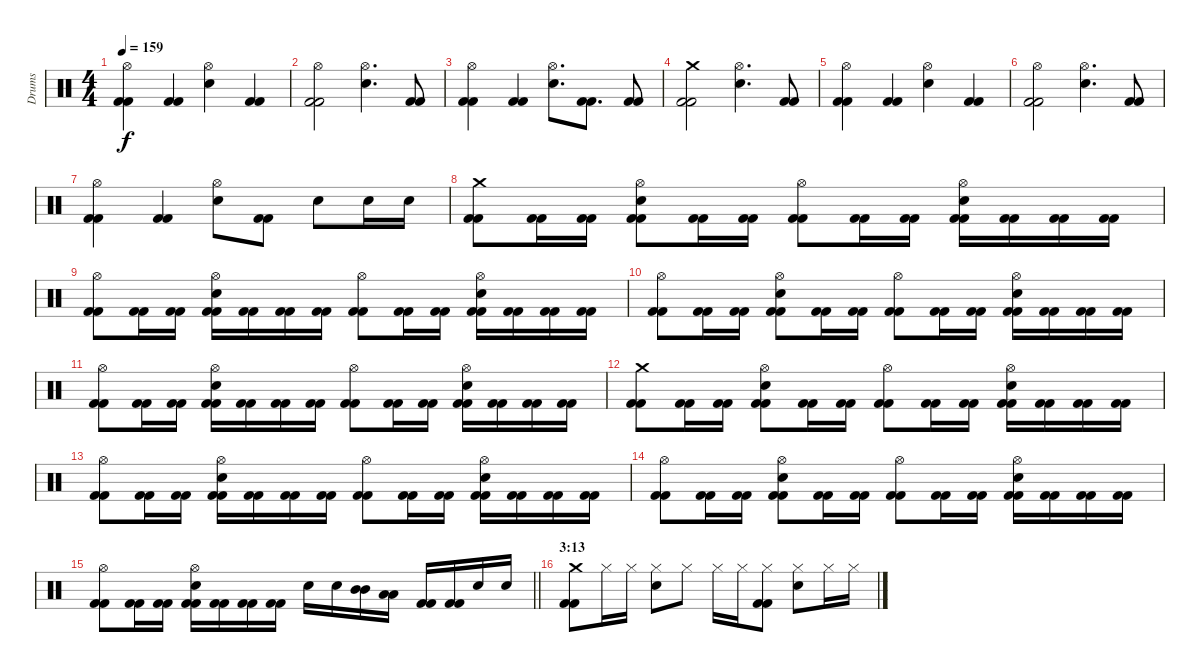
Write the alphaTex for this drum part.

\track ("Drums" "Drums") {instrument percussion}
\staff {score}
\articulation defaults
\ts (4 4)
\tempo 159
\clef neutral
\ks c
("Hi-Hat (open)" "Kick (hit) 2" "Kick (hit) 2").4{dy f} ("Kick (hit) 2" "Kick (hit) 2").4 ("Hi-Hat (open)" "Electric Snare (hit)").4 ("Kick (hit) 2" "Kick (hit) 2").4 |
("Hi-Hat (open)" "Kick (hit) 2" "Kick (hit) 2").2 ("Hi-Hat (open)" "Electric Snare (hit)").4{d} ("Kick (hit) 2" "Kick (hit) 2").8 |
("Hi-Hat (open)" "Kick (hit) 2" "Kick (hit) 2").4 ("Kick (hit) 2" "Kick (hit) 2").4 ("Hi-Hat (open)" "Electric Snare (hit)").8{d} ("Kick (hit) 2" "Kick (hit) 2").8{d} ("Kick (hit) 2" "Kick (hit) 2").8 |
("Crash medium (hit)" "Kick (hit) 2" "Kick (hit) 2").2 ("Hi-Hat (open)" "Electric Snare (hit)").4{d} ("Kick (hit) 2" "Kick (hit) 2").8 |
("Hi-Hat (open)" "Kick (hit) 2" "Kick (hit) 2").4 ("Kick (hit) 2" "Kick (hit) 2").4 ("Hi-Hat (open)" "Electric Snare (hit)").4 ("Kick (hit) 2" "Kick (hit) 2").4 |
("Hi-Hat (open)" "Kick (hit) 2" "Kick (hit) 2").2 ("Hi-Hat (open)" "Electric Snare (hit)").4{d} ("Kick (hit) 2" "Kick (hit) 2").8 |
("Hi-Hat (open)" "Kick (hit) 2" "Kick (hit) 2").4 ("Kick (hit) 2" "Kick (hit) 2").4 ("Hi-Hat (open)" "Electric Snare (hit)").8 ("Kick (hit) 2" "Kick (hit) 2").8 "Electric Snare (hit)".8 "Electric Snare (hit)".16 "Electric Snare (hit)".16 |
("Crash medium (hit)" "Kick (hit) 2" "Kick (hit) 2").8 ("Kick (hit) 2" "Kick (hit) 2").16 ("Kick (hit) 2" "Kick (hit) 2").16 ("Hi-Hat (open)" "Electric Snare (hit)" "Kick (hit) 2" "Kick (hit) 2").8 ("Kick (hit) 2" "Kick (hit) 2").16 ("Kick (hit) 2" "Kick (hit) 2").16 ("Hi-Hat (open)" "Kick (hit) 2" "Kick (hit) 2").8 ("Kick (hit) 2" "Kick (hit) 2").16 ("Kick (hit) 2" "Kick (hit) 2").16 ("Hi-Hat (open)" "Electric Snare (hit)" "Kick (hit) 2" "Kick (hit) 2").16 ("Kick (hit) 2" "Kick (hit) 2").16 ("Kick (hit) 2" "Kick (hit) 2").16 ("Kick (hit) 2" "Kick (hit) 2").16 |
("Hi-Hat (open)" "Kick (hit) 2" "Kick (hit) 2").8 ("Kick (hit) 2" "Kick (hit) 2").16 ("Kick (hit) 2" "Kick (hit) 2").16 ("Hi-Hat (open)" "Electric Snare (hit)" "Kick (hit) 2" "Kick (hit) 2").16 ("Kick (hit) 2" "Kick (hit) 2").16 ("Kick (hit) 2" "Kick (hit) 2").16 ("Kick (hit) 2" "Kick (hit) 2").16 ("Hi-Hat (open)" "Kick (hit) 2" "Kick (hit) 2").8 ("Kick (hit) 2" "Kick (hit) 2").16 ("Kick (hit) 2" "Kick (hit) 2").16 ("Hi-Hat (open)" "Electric Snare (hit)" "Kick (hit) 2" "Kick (hit) 2").16 ("Kick (hit) 2" "Kick (hit) 2").16 ("Kick (hit) 2" "Kick (hit) 2").16 ("Kick (hit) 2" "Kick (hit) 2").16 |
("Hi-Hat (open)" "Kick (hit) 2" "Kick (hit) 2").8 ("Kick (hit) 2" "Kick (hit) 2").16 ("Kick (hit) 2" "Kick (hit) 2").16 ("Hi-Hat (open)" "Electric Snare (hit)" "Kick (hit) 2" "Kick (hit) 2").8 ("Kick (hit) 2" "Kick (hit) 2").16 ("Kick (hit) 2" "Kick (hit) 2").16 ("Hi-Hat (open)" "Kick (hit) 2" "Kick (hit) 2").8 ("Kick (hit) 2" "Kick (hit) 2").16 ("Kick (hit) 2" "Kick (hit) 2").16 ("Hi-Hat (open)" "Electric Snare (hit)" "Kick (hit) 2" "Kick (hit) 2").16 ("Kick (hit) 2" "Kick (hit) 2").16 ("Kick (hit) 2" "Kick (hit) 2").16 ("Kick (hit) 2" "Kick (hit) 2").16 |
("Hi-Hat (open)" "Kick (hit) 2" "Kick (hit) 2").8 ("Kick (hit) 2" "Kick (hit) 2").16 ("Kick (hit) 2" "Kick (hit) 2").16 ("Hi-Hat (open)" "Electric Snare (hit)" "Kick (hit) 2" "Kick (hit) 2").16 ("Kick (hit) 2" "Kick (hit) 2").16 ("Kick (hit) 2" "Kick (hit) 2").16 ("Kick (hit) 2" "Kick (hit) 2").16 ("Hi-Hat (open)" "Kick (hit) 2" "Kick (hit) 2").8 ("Kick (hit) 2" "Kick (hit) 2").16 ("Kick (hit) 2" "Kick (hit) 2").16 ("Hi-Hat (open)" "Electric Snare (hit)" "Kick (hit) 2" "Kick (hit) 2").16 ("Kick (hit) 2" "Kick (hit) 2").16 ("Kick (hit) 2" "Kick (hit) 2").16 ("Kick (hit) 2" "Kick (hit) 2").16 |
("Crash medium (hit)" "Kick (hit) 2" "Kick (hit) 2").8 ("Kick (hit) 2" "Kick (hit) 2").16 ("Kick (hit) 2" "Kick (hit) 2").16 ("Hi-Hat (open)" "Electric Snare (hit)" "Kick (hit) 2" "Kick (hit) 2").8 ("Kick (hit) 2" "Kick (hit) 2").16 ("Kick (hit) 2" "Kick (hit) 2").16 ("Hi-Hat (open)" "Kick (hit) 2" "Kick (hit) 2").8 ("Kick (hit) 2" "Kick (hit) 2").16 ("Kick (hit) 2" "Kick (hit) 2").16 ("Hi-Hat (open)" "Electric Snare (hit)" "Kick (hit) 2" "Kick (hit) 2").16 ("Kick (hit) 2" "Kick (hit) 2").16 ("Kick (hit) 2" "Kick (hit) 2").16 ("Kick (hit) 2" "Kick (hit) 2").16 |
("Hi-Hat (open)" "Kick (hit) 2" "Kick (hit) 2").8 ("Kick (hit) 2" "Kick (hit) 2").16 ("Kick (hit) 2" "Kick (hit) 2").16 ("Hi-Hat (open)" "Electric Snare (hit)" "Kick (hit) 2" "Kick (hit) 2").16 ("Kick (hit) 2" "Kick (hit) 2").16 ("Kick (hit) 2" "Kick (hit) 2").16 ("Kick (hit) 2" "Kick (hit) 2").16 ("Hi-Hat (open)" "Kick (hit) 2" "Kick (hit) 2").8 ("Kick (hit) 2" "Kick (hit) 2").16 ("Kick (hit) 2" "Kick (hit) 2").16 ("Hi-Hat (open)" "Electric Snare (hit)" "Kick (hit) 2" "Kick (hit) 2").16 ("Kick (hit) 2" "Kick (hit) 2").16 ("Kick (hit) 2" "Kick (hit) 2").16 ("Kick (hit) 2" "Kick (hit) 2").16 |
("Hi-Hat (open)" "Kick (hit) 2" "Kick (hit) 2").8 ("Kick (hit) 2" "Kick (hit) 2").16 ("Kick (hit) 2" "Kick (hit) 2").16 ("Hi-Hat (open)" "Electric Snare (hit)" "Kick (hit) 2" "Kick (hit) 2").8 ("Kick (hit) 2" "Kick (hit) 2").16 ("Kick (hit) 2" "Kick (hit) 2").16 ("Hi-Hat (open)" "Kick (hit) 2" "Kick (hit) 2").8 ("Kick (hit) 2" "Kick (hit) 2").16 ("Kick (hit) 2" "Kick (hit) 2").16 ("Hi-Hat (open)" "Electric Snare (hit)" "Kick (hit) 2" "Kick (hit) 2").16 ("Kick (hit) 2" "Kick (hit) 2").16 ("Kick (hit) 2" "Kick (hit) 2").16 ("Kick (hit) 2" "Kick (hit) 2").16 |
\barLineRight lightlight
("Hi-Hat (open)" "Kick (hit) 2" "Kick (hit) 2").8 ("Kick (hit) 2" "Kick (hit) 2").16 ("Kick (hit) 2" "Kick (hit) 2").16 ("Hi-Hat (open)" "Electric Snare (hit)" "Kick (hit) 2" "Kick (hit) 2").16 ("Kick (hit) 2" "Kick (hit) 2").16 ("Kick (hit) 2" "Kick (hit) 2").16 ("Kick (hit) 2" "Kick (hit) 2").16 "Electric Snare (hit)".16 "Electric Snare (hit)".16 ("Mid Tom (hit)" "Mid Tom (hit)").16 ("Low Tom (hit)" "Low Tom (hit)").16 ("Kick (hit) 2" "Kick (hit) 2").16 ("Kick (hit) 2" "Kick (hit) 2").16 "Electric Snare (hit)".16 "Electric Snare (hit)".16 |
\section ("" "3:13")
("Crash medium (hit)" "Kick (hit) 2" "Kick (hit) 2").8 "Hi-Hat (closed)".16 "Hi-Hat (closed)".16 ("Hi-Hat (closed)" "Electric Snare (hit)").8 "Hi-Hat (closed)".8 "Hi-Hat (closed)".16 "Hi-Hat (closed)".16 ("Hi-Hat (closed)" "Kick (hit) 2" "Kick (hit) 2").8 ("Hi-Hat (closed)" "Electric Snare (hit)").8 "Hi-Hat (closed)".16 "Hi-Hat (closed)".16
